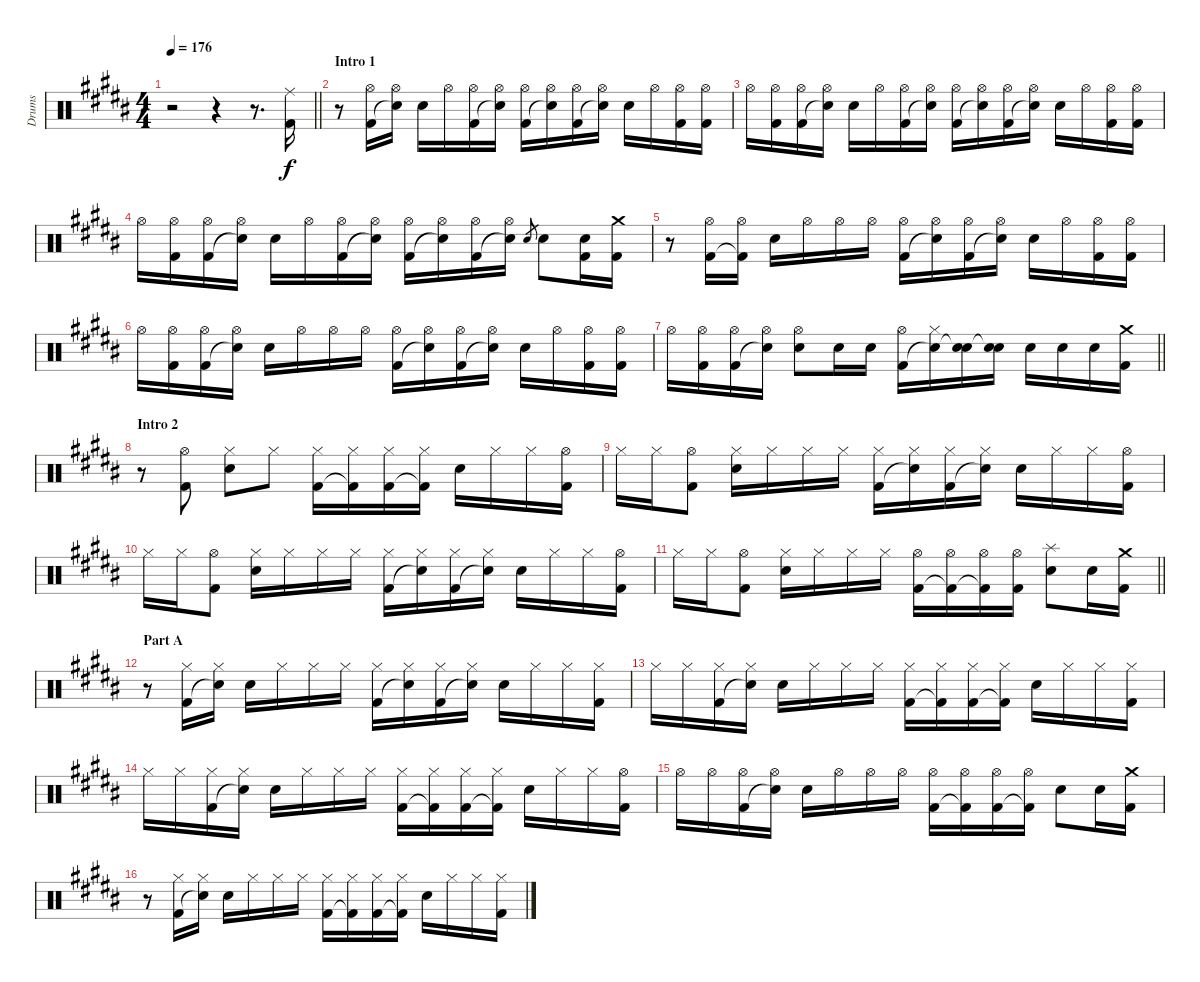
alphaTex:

\track ("Drums" "Drums") {instrument percussion}
\staff {score}
\articulation defaults
\ts (4 4)
\tempo 176
\tempo 132
\tempo 176
\clef neutral
\barLineRight lightlight
\ks b
r.2{dy f} r.4 r.8{d} ("Ride (middle)" "Kick (hit) 2").16 |
\section ("" "Intro 1")
r.8 ("Hi-Hat (open)" "Kick (hit) 2").16 ("Hi-Hat (open)" "Snare (hit)"{t}).16 "Electric Snare (hit)".16 "Hi-Hat (open)".16 ("Hi-Hat (open)" "Kick (hit) 2").16 ("Hi-Hat (open)" "Snare (hit)"{t}).16 ("Hi-Hat (open)" "Kick (hit) 2").16 ("Hi-Hat (open)" "Snare (hit)"{t}).16 ("Hi-Hat (open)" "Kick (hit) 2").16 ("Hi-Hat (open)" "Snare (hit)"{t}).16 "Electric Snare (hit)".16 "Hi-Hat (open)".16 ("Hi-Hat (open)" "Kick (hit) 2").16 ("Hi-Hat (open)" "Kick (hit) 2").16 |
"Hi-Hat (open)".16 ("Hi-Hat (open)" "Kick (hit) 2").16 ("Hi-Hat (open)" "Kick (hit) 2").16 ("Hi-Hat (open)" "Snare (hit)"{t}).16 "Electric Snare (hit)".16 "Hi-Hat (open)".16 ("Hi-Hat (open)" "Kick (hit) 2").16 ("Hi-Hat (open)" "Snare (hit)"{t}).16 ("Hi-Hat (open)" "Kick (hit) 2").16 ("Hi-Hat (open)" "Snare (hit)"{t}).16 ("Hi-Hat (open)" "Kick (hit) 2").16 ("Hi-Hat (open)" "Snare (hit)"{t}).16 "Electric Snare (hit)".16 "Hi-Hat (open)".16 ("Hi-Hat (open)" "Kick (hit) 2").16 ("Hi-Hat (open)" "Kick (hit) 2").16 |
"Hi-Hat (open)".16 ("Hi-Hat (open)" "Kick (hit) 2").16 ("Hi-Hat (open)" "Kick (hit) 2").16 ("Hi-Hat (open)" "Snare (hit)"{t}).16 "Electric Snare (hit)".16 "Hi-Hat (open)".16 ("Hi-Hat (open)" "Kick (hit) 2").16 ("Hi-Hat (open)" "Snare (hit)"{t}).16 ("Hi-Hat (open)" "Kick (hit) 2").16 ("Hi-Hat (open)" "Snare (hit)"{t}).16 ("Hi-Hat (open)" "Kick (hit) 2").16 ("Hi-Hat (open)" "Snare (hit)"{t}).16 "Electric Snare (hit)".8{gr} "Electric Snare (hit)".8 ("Electric Snare (hit)" "Kick (hit) 2").16 ("Crash medium (hit)" "Kick (hit) 2").16 |
r.8 ("Hi-Hat (open)" "Kick (hit) 2").16 ("Hi-Hat (open)" "Kick (hit) 2"{t}).16 "Electric Snare (hit)".16 "Hi-Hat (open)".16 "Hi-Hat (open)".16 "Hi-Hat (open)".16 ("Hi-Hat (open)" "Kick (hit) 2").16 ("Hi-Hat (open)" "Snare (hit)"{t}).16 ("Hi-Hat (open)" "Kick (hit) 2").16 ("Hi-Hat (open)" "Snare (hit)"{t}).16 "Electric Snare (hit)".16 "Hi-Hat (open)".16 ("Hi-Hat (open)" "Kick (hit) 2").16 ("Hi-Hat (open)" "Kick (hit) 2").16 |
"Hi-Hat (open)".16 ("Hi-Hat (open)" "Kick (hit) 2").16 ("Hi-Hat (open)" "Kick (hit) 2").16 ("Hi-Hat (open)" "Snare (hit)"{t}).16 "Electric Snare (hit)".16 "Hi-Hat (open)".16 "Hi-Hat (open)".16 "Hi-Hat (open)".16 ("Hi-Hat (open)" "Kick (hit) 2").16 ("Hi-Hat (open)" "Snare (hit)"{t}).16 ("Hi-Hat (open)" "Kick (hit) 2").16 ("Hi-Hat (open)" "Snare (hit)"{t}).16 "Electric Snare (hit)".16 "Hi-Hat (open)".16 ("Hi-Hat (open)" "Kick (hit) 2").16 ("Hi-Hat (open)" "Kick (hit) 2").16 |
\barLineRight lightlight "Hi-Hat (open)".16
("Hi-Hat (open)" "Kick (hit) 2").16 ("Hi-Hat (open)" "Kick (hit) 2").16 ("Hi-Hat (open)" "Snare (hit)"{t}).16 ("Hi-Hat (open)" "Electric Snare (hit)").8 "Electric Snare (hit)".16 "Electric Snare (hit)".16 ("Hi-Hat (open)" "Kick (hit) 2").16 ("Hi-Hat (closed)" "Snare (hit)"{t}).16 ("Electric Snare (hit)" "Snare (hit)"{t}).16 ("Electric Snare (hit)" "Snare (hit)"{t}).16 "Electric Snare (hit)".16 "Electric Snare (hit)".16 "Electric Snare (hit)".16 ("Crash medium (hit)" "Kick (hit) 2").16 |
\section ("" "Intro 2")
r.8 ("Hi-Hat (open)" "Kick (hit) 2").8 ("Hi-Hat (closed)" "Electric Snare (hit)").8 "Hi-Hat (closed)".8 ("Hi-Hat (closed)" "Kick (hit) 2").16 ("Hi-Hat (closed)" "Kick (hit) 2"{t}).16 ("Hi-Hat (closed)" "Kick (hit) 2").16 ("Hi-Hat (closed)" "Kick (hit) 2"{t}).16 "Electric Snare (hit)".16 "Hi-Hat (closed)".16 "Hi-Hat (closed)".16 ("Hi-Hat (open)" "Kick (hit) 2").16 |
"Hi-Hat (closed)".16 "Hi-Hat (closed)".16 ("Hi-Hat (open)" "Kick (hit) 2").8 ("Hi-Hat (closed)" "Electric Snare (hit)").16 "Hi-Hat (closed)".16 "Hi-Hat (closed)".16 "Hi-Hat (closed)".16 ("Hi-Hat (closed)" "Kick (hit) 2").16 ("Hi-Hat (closed)" "Snare (hit)"{t}).16 ("Hi-Hat (closed)" "Kick (hit) 2").16 ("Hi-Hat (closed)" "Snare (hit)"{t}).16 "Electric Snare (hit)".16 "Hi-Hat (closed)".16 "Hi-Hat (closed)".16 ("Hi-Hat (open)" "Kick (hit) 2").16 |
"Hi-Hat (closed)".16 "Hi-Hat (closed)".16 ("Hi-Hat (open)" "Kick (hit) 2").8 ("Hi-Hat (closed)" "Electric Snare (hit)").16 "Hi-Hat (closed)".16 "Hi-Hat (closed)".16 "Hi-Hat (closed)".16 ("Hi-Hat (closed)" "Kick (hit) 2").16 ("Hi-Hat (closed)" "Snare (hit)"{t}).16 ("Hi-Hat (closed)" "Kick (hit) 2").16 ("Hi-Hat (closed)" "Snare (hit)"{t}).16 "Electric Snare (hit)".16 "Hi-Hat (closed)".16 "Hi-Hat (closed)".16 ("Hi-Hat (open)" "Kick (hit) 2").16 |
\barLineRight lightlight "Hi-Hat (closed)".16 "Hi-Hat (closed)".16
("Hi-Hat (open)" "Kick (hit) 2").8 ("Hi-Hat (closed)" "Electric Snare (hit)").16 "Hi-Hat (closed)".16 "Hi-Hat (closed)".16 "Hi-Hat (closed)".16 ("Hi-Hat (open)" "Kick (hit) 2").16 ("Hi-Hat (open)" "Kick (hit) 2"{t}).16 ("Hi-Hat (open)" "Kick (hit) 2"{t}).16 ("Hi-Hat (open)" "Kick (hit) 2").16 ("Splash (hit)" "Electric Snare (hit)").8 "Electric Snare (hit)".16 ("Crash medium (hit)" "Kick (hit) 2").16 |
\section ("" "Part A")
r.8 ("Hi-Hat (closed)" "Kick (hit) 2").16 ("Hi-Hat (closed)" "Snare (hit)"{t}).16 "Electric Snare (hit)".16 "Hi-Hat (closed)".16 "Hi-Hat (closed)".16 "Hi-Hat (closed)".16 ("Hi-Hat (closed)" "Kick (hit) 2").16 ("Hi-Hat (closed)" "Snare (hit)"{t}).16 ("Hi-Hat (closed)" "Kick (hit) 2").16 ("Hi-Hat (closed)" "Snare (hit)"{t}).16 "Electric Snare (hit)".16 "Hi-Hat (closed)".16 "Hi-Hat (closed)".16 ("Hi-Hat (closed)" "Kick (hit) 2").16 |
"Hi-Hat (closed)".16 "Hi-Hat (closed)".16 ("Hi-Hat (closed)" "Kick (hit) 2").16 ("Hi-Hat (closed)" "Snare (hit)"{t}).16 "Electric Snare (hit)".16 "Hi-Hat (closed)".16 "Hi-Hat (closed)".16 "Hi-Hat (closed)".16 ("Hi-Hat (closed)" "Kick (hit) 2").16 ("Hi-Hat (closed)" "Kick (hit) 2"{t}).16 ("Hi-Hat (closed)" "Kick (hit) 2").16 ("Hi-Hat (closed)" "Kick (hit) 2"{t}).16 "Electric Snare (hit)".16 "Hi-Hat (closed)".16 "Hi-Hat (closed)".16 ("Hi-Hat (closed)" "Kick (hit) 2").16 |
"Hi-Hat (closed)".16 "Hi-Hat (closed)".16 ("Hi-Hat (closed)" "Kick (hit) 2").16 ("Hi-Hat (closed)" "Snare (hit)"{t}).16 "Electric Snare (hit)".16 "Hi-Hat (closed)".16 "Hi-Hat (closed)".16 "Hi-Hat (closed)".16 ("Hi-Hat (closed)" "Kick (hit) 2").16 ("Hi-Hat (closed)" "Kick (hit) 2"{t}).16 ("Hi-Hat (closed)" "Kick (hit) 2").16 ("Hi-Hat (closed)" "Kick (hit) 2"{t}).16 "Electric Snare (hit)".16 "Hi-Hat (closed)".16 "Hi-Hat (closed)".16 ("Hi-Hat (open)" "Kick (hit) 2").16 |
"Hi-Hat (open)".16 "Hi-Hat (open)".16 ("Hi-Hat (open)" "Kick (hit) 2").16 ("Hi-Hat (open)" "Snare (hit)"{t}).16 "Electric Snare (hit)".16 "Hi-Hat (open)".16 "Hi-Hat (open)".16 "Hi-Hat (open)".16 ("Hi-Hat (open)" "Kick (hit) 2").16 ("Hi-Hat (open)" "Kick (hit) 2"{t}).16 ("Hi-Hat (open)" "Kick (hit) 2").16 ("Hi-Hat (open)" "Kick (hit) 2"{t}).16 "Electric Snare (hit)".8 "Electric Snare (hit)".16 ("Crash medium (hit)" "Kick (hit) 2").16 |
r.8 ("Hi-Hat (closed)" "Kick (hit) 2").16 ("Hi-Hat (closed)" "Snare (hit)"{t}).16 "Electric Snare (hit)".16 "Hi-Hat (closed)".16 "Hi-Hat (closed)".16 "Hi-Hat (closed)".16 ("Hi-Hat (closed)" "Kick (hit) 2").16 ("Hi-Hat (closed)" "Kick (hit) 2"{t}).16 ("Hi-Hat (closed)" "Kick (hit) 2").16 ("Hi-Hat (closed)" "Kick (hit) 2"{t}).16 "Electric Snare (hit)".16 "Hi-Hat (closed)".16 "Hi-Hat (closed)".16 ("Hi-Hat (closed)" "Kick (hit) 2").16
